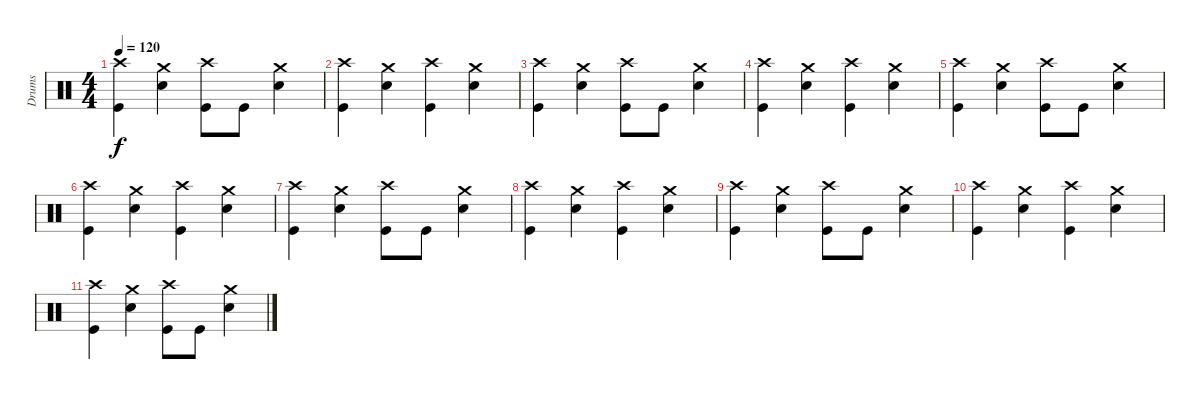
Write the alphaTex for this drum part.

\track ("Drums" "Drums") {instrument percussion}
\staff {score}
\articulation defaults
\ts (4 4)
\tempo 120
\clef neutral
\ks c
("Crash high (hit)" "Kick (hit)").4{dy f} ("Crash medium (hit)" "Electric Snare (hit)").4 ("Crash high (hit)" "Kick (hit)").8 "Kick (hit)".8 ("Crash medium (hit)" "Electric Snare (hit)").4 |
("Crash high (hit)" "Kick (hit)").4 ("Crash medium (hit)" "Electric Snare (hit)").4 ("Crash high (hit)" "Kick (hit)").4 ("Crash medium (hit)" "Electric Snare (hit)").4 |
("Crash high (hit)" "Kick (hit)").4 ("Crash medium (hit)" "Electric Snare (hit)").4 ("Crash high (hit)" "Kick (hit)").8 "Kick (hit)".8 ("Crash medium (hit)" "Electric Snare (hit)").4 |
("Crash high (hit)" "Kick (hit)").4 ("Crash medium (hit)" "Electric Snare (hit)").4 ("Crash high (hit)" "Kick (hit)").4 ("Crash medium (hit)" "Electric Snare (hit)").4 |
("Crash high (hit)" "Kick (hit)").4 ("Crash medium (hit)" "Electric Snare (hit)").4 ("Crash high (hit)" "Kick (hit)").8 "Kick (hit)".8 ("Crash medium (hit)" "Electric Snare (hit)").4 |
("Crash high (hit)" "Kick (hit)").4 ("Crash medium (hit)" "Electric Snare (hit)").4 ("Crash high (hit)" "Kick (hit)").4 ("Crash medium (hit)" "Electric Snare (hit)").4 |
("Crash high (hit)" "Kick (hit)").4 ("Crash medium (hit)" "Electric Snare (hit)").4 ("Crash high (hit)" "Kick (hit)").8 "Kick (hit)".8 ("Crash medium (hit)" "Electric Snare (hit)").4 |
("Crash high (hit)" "Kick (hit)").4 ("Crash medium (hit)" "Electric Snare (hit)").4 ("Crash high (hit)" "Kick (hit)").4 ("Crash medium (hit)" "Electric Snare (hit)").4 |
("Crash high (hit)" "Kick (hit)").4 ("Crash medium (hit)" "Electric Snare (hit)").4 ("Crash high (hit)" "Kick (hit)").8 "Kick (hit)".8 ("Crash medium (hit)" "Electric Snare (hit)").4 |
("Crash high (hit)" "Kick (hit)").4 ("Crash medium (hit)" "Electric Snare (hit)").4 ("Crash high (hit)" "Kick (hit)").4 ("Crash medium (hit)" "Electric Snare (hit)").4 |
("Crash high (hit)" "Kick (hit)").4 ("Crash medium (hit)" "Electric Snare (hit)").4 ("Crash high (hit)" "Kick (hit)").8 "Kick (hit)".8 ("Crash medium (hit)" "Electric Snare (hit)").4
